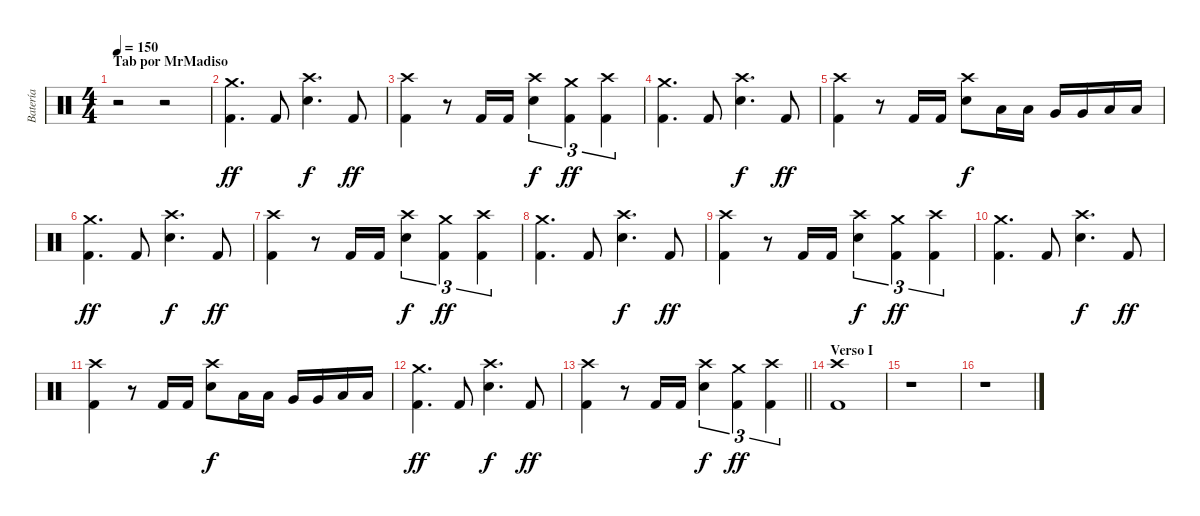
\track ("Batería" "Batería") {instrument percussion}
\staff {score}
\articulation defaults
\ts (4 4)
\section ("" "Tab por MrMadiso")
\tempo 150
\clef neutral
\ks c
r.2{dy ff} r.2 |
("Crash medium (hit)" "Kick (hit) 2").4{d} "Kick (hit) 2".8 ("Crash high (hit)" "Electric Snare (hit)").4{d dy f} "Kick (hit) 2".8{dy ff} |
("Crash high (hit)" "Kick (hit) 2").4 r.8 "Kick (hit) 2".16 "Kick (hit) 2".16 ("Crash high (hit)" "Electric Snare (hit)").4{tu (3 2) dy f} ("Crash medium (hit)" "Kick (hit) 2").4{tu (3 2) dy ff} ("Crash high (hit)" "Kick (hit) 2").4{tu (3 2)} |
("Crash medium (hit)" "Kick (hit) 2").4{d} "Kick (hit) 2".8 ("Crash high (hit)" "Electric Snare (hit)").4{d dy f} "Kick (hit) 2".8{dy ff} |
("Crash high (hit)" "Kick (hit) 2").4 r.8 "Kick (hit) 2".16 "Kick (hit) 2".16 ("Crash high (hit)" "Electric Snare (hit)").8{dy f} "Low Tom (hit)".16 "Low Tom (hit)".16 "Very Low Tom (hit)".16 "Very Low Tom (hit)".16 "Low Floor Tom (hit)".16 "Low Floor Tom (hit)".16 |
("Crash medium (hit)" "Kick (hit) 2").4{d dy ff} "Kick (hit) 2".8 ("Crash high (hit)" "Electric Snare (hit)").4{d dy f} "Kick (hit) 2".8{dy ff} |
("Crash high (hit)" "Kick (hit) 2").4 r.8 "Kick (hit) 2".16 "Kick (hit) 2".16 ("Crash high (hit)" "Electric Snare (hit)").4{tu (3 2) dy f} ("Crash medium (hit)" "Kick (hit) 2").4{tu (3 2) dy ff} ("Crash high (hit)" "Kick (hit) 2").4{tu (3 2)} |
("Crash medium (hit)" "Kick (hit) 2").4{d} "Kick (hit) 2".8 ("Crash high (hit)" "Electric Snare (hit)").4{d dy f} "Kick (hit) 2".8{dy ff} |
("Crash high (hit)" "Kick (hit) 2").4 r.8 "Kick (hit) 2".16 "Kick (hit) 2".16 ("Crash high (hit)" "Electric Snare (hit)").4{tu (3 2) dy f} ("Crash medium (hit)" "Kick (hit) 2").4{tu (3 2) dy ff} ("Crash high (hit)" "Kick (hit) 2").4{tu (3 2)} |
("Crash medium (hit)" "Kick (hit) 2").4{d} "Kick (hit) 2".8 ("Crash high (hit)" "Electric Snare (hit)").4{d dy f} "Kick (hit) 2".8{dy ff} |
("Crash high (hit)" "Kick (hit) 2").4 r.8 "Kick (hit) 2".16 "Kick (hit) 2".16 ("Crash high (hit)" "Electric Snare (hit)").8{dy f} "Low Tom (hit)".16 "Low Tom (hit)".16 "Very Low Tom (hit)".16 "Very Low Tom (hit)".16 "Low Floor Tom (hit)".16 "Low Floor Tom (hit)".16 |
("Crash medium (hit)" "Kick (hit) 2").4{d dy ff} "Kick (hit) 2".8 ("Crash high (hit)" "Electric Snare (hit)").4{d dy f} "Kick (hit) 2".8{dy ff} |
\barLineRight lightlight
("Crash high (hit)" "Kick (hit) 2").4 r.8 "Kick (hit) 2".16 "Kick (hit) 2".16 ("Crash high (hit)" "Electric Snare (hit)").4{tu (3 2) dy f} ("Crash medium (hit)" "Kick (hit) 2").4{tu (3 2) dy ff} ("Crash high (hit)" "Kick (hit) 2").4{tu (3 2)} |
\section ("" "Verso I")
("Crash high (hit)" "Kick (hit) 2").1 |
r.1 |
r.1
